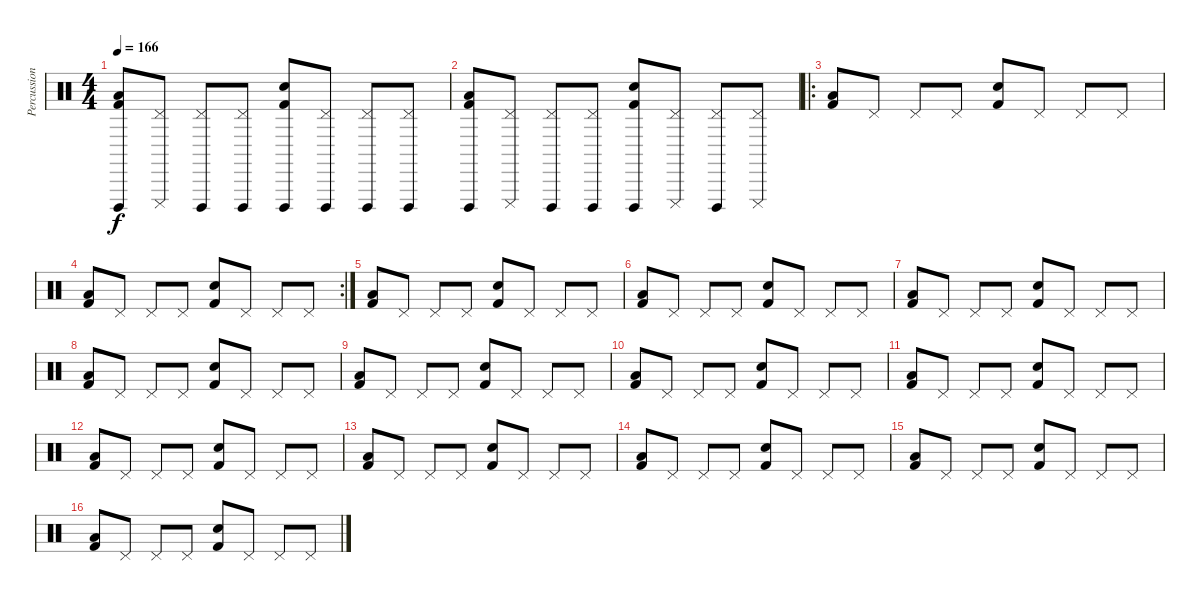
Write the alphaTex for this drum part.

\track ("Percussion" "Percussion") {instrument percussion}
\staff {score}
\articulation defaults
\ts (4 4)
\tempo 166
\clef neutral
\ks c
("Kick (hit) 2" "Cuica (open)" "Low Tom (hit)").8{dy f} ("Pedal Hi-Hat (hit)" "Cuica (mute)").8 ("Pedal Hi-Hat (hit)" "Cuica (open)").8 ("Pedal Hi-Hat (hit)" "Cuica (open)").8 ("Kick (hit) 2" "Cuica (open)" "Electric Snare (hit)").8 ("Pedal Hi-Hat (hit)" "Cuica (open)").8 ("Pedal Hi-Hat (hit)" "Cuica (open)").8 ("Pedal Hi-Hat (hit)" "Cuica (open)").8 |
("Kick (hit) 2" "Cuica (open)" "Low Tom (hit)").8 ("Pedal Hi-Hat (hit)" "Cuica (mute)").8 ("Pedal Hi-Hat (hit)" "Cuica (open)").8 ("Pedal Hi-Hat (hit)" "Cuica (open)").8 ("Kick (hit) 2" "Cuica (open)" "Electric Snare (hit)").8 ("Pedal Hi-Hat (hit)" "Cuica (mute)").8 ("Pedal Hi-Hat (hit)" "Cuica (open)").8 ("Pedal Hi-Hat (hit)" "Cuica (mute)").8 |
\ro
("Kick (hit) 2" "Low Tom (hit)").8 "Pedal Hi-Hat (hit)".8 "Pedal Hi-Hat (hit)".8 "Pedal Hi-Hat (hit)".8 ("Kick (hit) 2" "Electric Snare (hit)").8 "Pedal Hi-Hat (hit)".8 "Pedal Hi-Hat (hit)".8 "Pedal Hi-Hat (hit)".8 |
\rc 2
("Kick (hit) 2" "Low Tom (hit)").8 "Pedal Hi-Hat (hit)".8 "Pedal Hi-Hat (hit)".8 "Pedal Hi-Hat (hit)".8 ("Kick (hit) 2" "Electric Snare (hit)").8 "Pedal Hi-Hat (hit)".8 "Pedal Hi-Hat (hit)".8 "Pedal Hi-Hat (hit)".8 |
("Kick (hit) 2" "Low Tom (hit)").8 "Pedal Hi-Hat (hit)".8 "Pedal Hi-Hat (hit)".8 "Pedal Hi-Hat (hit)".8 ("Kick (hit) 2" "Electric Snare (hit)").8 "Pedal Hi-Hat (hit)".8 "Pedal Hi-Hat (hit)".8 "Pedal Hi-Hat (hit)".8 |
("Kick (hit) 2" "Low Tom (hit)").8 "Pedal Hi-Hat (hit)".8 "Pedal Hi-Hat (hit)".8 "Pedal Hi-Hat (hit)".8 ("Kick (hit) 2" "Electric Snare (hit)").8 "Pedal Hi-Hat (hit)".8 "Pedal Hi-Hat (hit)".8 "Pedal Hi-Hat (hit)".8 |
("Kick (hit) 2" "Low Tom (hit)").8 "Pedal Hi-Hat (hit)".8 "Pedal Hi-Hat (hit)".8 "Pedal Hi-Hat (hit)".8 ("Kick (hit) 2" "Electric Snare (hit)").8 "Pedal Hi-Hat (hit)".8 "Pedal Hi-Hat (hit)".8 "Pedal Hi-Hat (hit)".8 |
("Kick (hit) 2" "Low Tom (hit)").8 "Pedal Hi-Hat (hit)".8 "Pedal Hi-Hat (hit)".8 "Pedal Hi-Hat (hit)".8 ("Kick (hit) 2" "Electric Snare (hit)").8 "Pedal Hi-Hat (hit)".8 "Pedal Hi-Hat (hit)".8 "Pedal Hi-Hat (hit)".8 |
("Kick (hit) 2" "Low Tom (hit)").8 "Pedal Hi-Hat (hit)".8 "Pedal Hi-Hat (hit)".8 "Pedal Hi-Hat (hit)".8 ("Kick (hit) 2" "Electric Snare (hit)").8 "Pedal Hi-Hat (hit)".8 "Pedal Hi-Hat (hit)".8 "Pedal Hi-Hat (hit)".8 |
("Kick (hit) 2" "Low Tom (hit)").8 "Pedal Hi-Hat (hit)".8 "Pedal Hi-Hat (hit)".8 "Pedal Hi-Hat (hit)".8 ("Kick (hit) 2" "Electric Snare (hit)").8 "Pedal Hi-Hat (hit)".8 "Pedal Hi-Hat (hit)".8 "Pedal Hi-Hat (hit)".8 |
("Kick (hit) 2" "Low Tom (hit)").8 "Pedal Hi-Hat (hit)".8 "Pedal Hi-Hat (hit)".8 "Pedal Hi-Hat (hit)".8 ("Kick (hit) 2" "Electric Snare (hit)").8 "Pedal Hi-Hat (hit)".8 "Pedal Hi-Hat (hit)".8 "Pedal Hi-Hat (hit)".8 |
("Kick (hit) 2" "Low Tom (hit)").8 "Pedal Hi-Hat (hit)".8 "Pedal Hi-Hat (hit)".8 "Pedal Hi-Hat (hit)".8 ("Kick (hit) 2" "Electric Snare (hit)").8 "Pedal Hi-Hat (hit)".8 "Pedal Hi-Hat (hit)".8 "Pedal Hi-Hat (hit)".8 |
("Kick (hit) 2" "Low Tom (hit)").8 "Pedal Hi-Hat (hit)".8 "Pedal Hi-Hat (hit)".8 "Pedal Hi-Hat (hit)".8 ("Kick (hit) 2" "Electric Snare (hit)").8 "Pedal Hi-Hat (hit)".8 "Pedal Hi-Hat (hit)".8 "Pedal Hi-Hat (hit)".8 |
("Kick (hit) 2" "Low Tom (hit)").8 "Pedal Hi-Hat (hit)".8 "Pedal Hi-Hat (hit)".8 "Pedal Hi-Hat (hit)".8 ("Kick (hit) 2" "Electric Snare (hit)").8 "Pedal Hi-Hat (hit)".8 "Pedal Hi-Hat (hit)".8 "Pedal Hi-Hat (hit)".8 |
("Kick (hit) 2" "Low Tom (hit)").8 "Pedal Hi-Hat (hit)".8 "Pedal Hi-Hat (hit)".8 "Pedal Hi-Hat (hit)".8 ("Kick (hit) 2" "Electric Snare (hit)").8 "Pedal Hi-Hat (hit)".8 "Pedal Hi-Hat (hit)".8 "Pedal Hi-Hat (hit)".8 |
("Kick (hit) 2" "Low Tom (hit)").8 "Pedal Hi-Hat (hit)".8 "Pedal Hi-Hat (hit)".8 "Pedal Hi-Hat (hit)".8 ("Kick (hit) 2" "Electric Snare (hit)").8 "Pedal Hi-Hat (hit)".8 "Pedal Hi-Hat (hit)".8 "Pedal Hi-Hat (hit)".8
